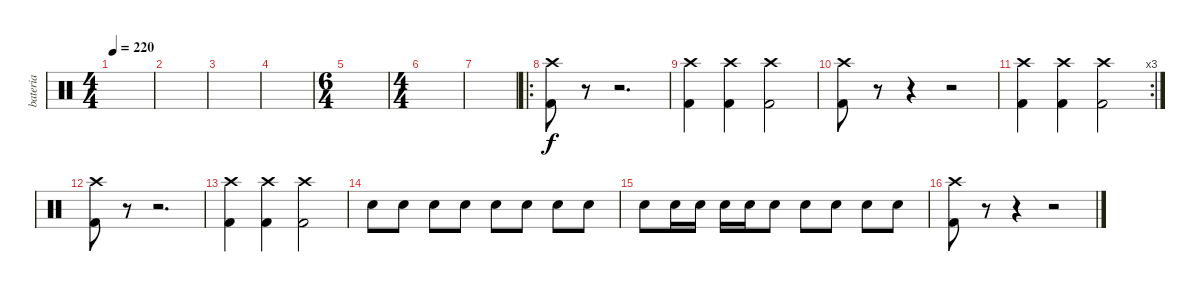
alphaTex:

\track ("bateria" "bateria") {instrument percussion}
\staff {score}
\articulation defaults
\ts (4 4)
\tempo 220
\clef neutral
\ks c
|
|
|
|
\ts (6 4)
|
\ts (4 4)
|
|
\ro
("Crash high (hit)" "Kick (hit) 2").8 r.8 r.2{d} |
("Crash high (hit)" "Kick (hit) 2").4 ("Crash high (hit)" "Kick (hit) 2").4 ("Crash high (hit)" "Kick (hit) 2").2 |
("Crash high (hit)" "Kick (hit) 2").8 r.8 r.4 r.2 |
\rc 3
("Crash high (hit)" "Kick (hit) 2").4 ("Crash high (hit)" "Kick (hit) 2").4 ("Crash high (hit)" "Kick (hit) 2").2 |
("Crash high (hit)" "Kick (hit) 2").8 r.8 r.2{d} |
("Crash high (hit)" "Kick (hit) 2").4 ("Crash high (hit)" "Kick (hit) 2").4 ("Crash high (hit)" "Kick (hit) 2").2 |
"Snare (hit) 2".8 "Snare (hit) 2".8 "Snare (hit) 2".8 "Snare (hit) 2".8 "Snare (hit) 2".8 "Snare (hit) 2".8 "Snare (hit) 2".8 "Snare (hit) 2".8 |
"Snare (hit) 2".8 "Snare (hit) 2".16 "Snare (hit) 2".16 "Snare (hit) 2".16 "Snare (hit) 2".16 "Snare (hit) 2".8 "Snare (hit) 2".8 "Snare (hit) 2".8 "Snare (hit) 2".8 "Snare (hit) 2".8 |
("Crash high (hit)" "Kick (hit) 2").8 r.8 r.4 r.2
